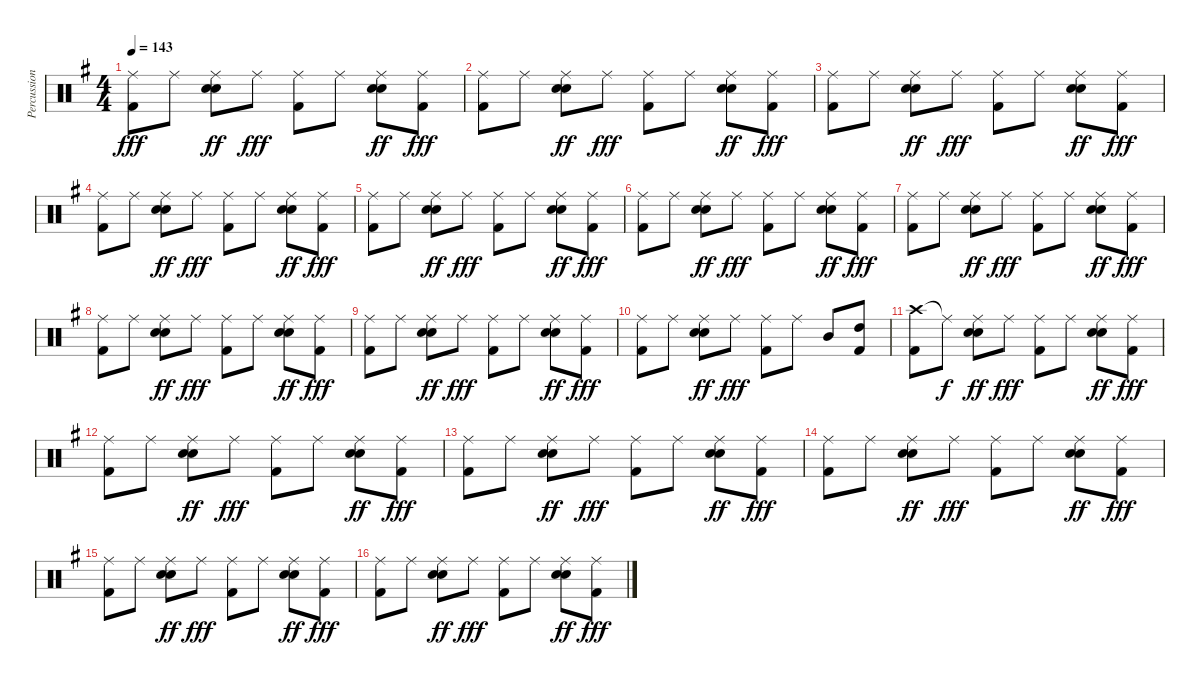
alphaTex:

\track ("Percussion" "Percussion") {instrument percussion}
\staff {score}
\articulation defaults
\ts (4 4)
\tempo 143
\clef neutral
\ks g
("Ride (middle)" "Kick (hit) 2").8{dy fff} "Ride (middle)".8 ("Ride (middle)" "Snare (hit) 2" "Electric Snare (hit)").8{dy ff} "Ride (middle)".8{dy fff} ("Ride (middle)" "Kick (hit) 2").8 "Ride (middle)".8 ("Ride (middle)" "Snare (hit) 2" "Electric Snare (hit)").8{dy ff} ("Ride (middle)" "Kick (hit) 2").8{dy fff} |
("Ride (middle)" "Kick (hit) 2").8 "Ride (middle)".8 ("Ride (middle)" "Snare (hit) 2" "Electric Snare (hit)").8{dy ff} "Ride (middle)".8{dy fff} ("Ride (middle)" "Kick (hit) 2").8 "Ride (middle)".8 ("Ride (middle)" "Snare (hit) 2" "Electric Snare (hit)").8{dy ff} ("Ride (middle)" "Kick (hit) 2").8{dy fff} |
("Ride (middle)" "Kick (hit) 2").8 "Ride (middle)".8 ("Ride (middle)" "Snare (hit) 2" "Electric Snare (hit)").8{dy ff} "Ride (middle)".8{dy fff} ("Ride (middle)" "Kick (hit) 2").8 "Ride (middle)".8 ("Ride (middle)" "Snare (hit) 2" "Electric Snare (hit)").8{dy ff} ("Ride (middle)" "Kick (hit) 2").8{dy fff} |
("Ride (middle)" "Kick (hit) 2").8 "Ride (middle)".8 ("Ride (middle)" "Snare (hit) 2" "Electric Snare (hit)").8{dy ff} "Ride (middle)".8{dy fff} ("Ride (middle)" "Kick (hit) 2").8 "Ride (middle)".8 ("Ride (middle)" "Snare (hit) 2" "Electric Snare (hit)").8{dy ff} ("Ride (middle)" "Kick (hit) 2").8{dy fff} |
("Ride (middle)" "Kick (hit) 2").8 "Ride (middle)".8 ("Ride (middle)" "Snare (hit) 2" "Electric Snare (hit)").8{dy ff} "Ride (middle)".8{dy fff} ("Ride (middle)" "Kick (hit) 2").8 "Ride (middle)".8 ("Ride (middle)" "Snare (hit) 2" "Electric Snare (hit)").8{dy ff} ("Ride (middle)" "Kick (hit) 2").8{dy fff} |
("Ride (middle)" "Kick (hit) 2").8 "Ride (middle)".8 ("Ride (middle)" "Snare (hit) 2" "Electric Snare (hit)").8{dy ff} "Ride (middle)".8{dy fff} ("Ride (middle)" "Kick (hit) 2").8 "Ride (middle)".8 ("Ride (middle)" "Snare (hit) 2" "Electric Snare (hit)").8{dy ff} ("Ride (middle)" "Kick (hit) 2").8{dy fff} |
("Ride (middle)" "Kick (hit) 2").8 "Ride (middle)".8 ("Ride (middle)" "Snare (hit) 2" "Electric Snare (hit)").8{dy ff} "Ride (middle)".8{dy fff} ("Ride (middle)" "Kick (hit) 2").8 "Ride (middle)".8 ("Ride (middle)" "Snare (hit) 2" "Electric Snare (hit)").8{dy ff} ("Ride (middle)" "Kick (hit) 2").8{dy fff} |
("Ride (middle)" "Kick (hit) 2").8 "Ride (middle)".8 ("Ride (middle)" "Snare (hit) 2" "Electric Snare (hit)").8{dy ff} "Ride (middle)".8{dy fff} ("Ride (middle)" "Kick (hit) 2").8 "Ride (middle)".8 ("Ride (middle)" "Snare (hit) 2" "Electric Snare (hit)").8{dy ff} ("Ride (middle)" "Kick (hit) 2").8{dy fff} |
("Ride (middle)" "Kick (hit) 2").8 "Ride (middle)".8 ("Ride (middle)" "Snare (hit) 2" "Electric Snare (hit)").8{dy ff} "Ride (middle)".8{dy fff} ("Ride (middle)" "Kick (hit) 2").8 "Ride (middle)".8 ("Ride (middle)" "Snare (hit) 2" "Electric Snare (hit)").8{dy ff} ("Ride (middle)" "Kick (hit) 2").8{dy fff} |
("Ride (middle)" "Kick (hit) 2").8 "Ride (middle)".8 ("Ride (middle)" "Snare (hit) 2" "Electric Snare (hit)").8{dy ff} "Ride (middle)".8{dy fff} ("Ride (middle)" "Kick (hit) 2").8 "Ride (middle)".8 "Mid Tom (hit)".8 ("High Tom (hit)" "Kick (hit) 2").8 |
("Crash high (hit)" "Kick (hit) 2").8 "Ride (middle)"{t}.8{dy f} ("Ride (middle)" "Snare (hit) 2" "Electric Snare (hit)").8{dy ff} "Ride (middle)".8{dy fff} ("Ride (middle)" "Kick (hit) 2").8 "Ride (middle)".8 ("Ride (middle)" "Snare (hit) 2" "Electric Snare (hit)").8{dy ff} ("Ride (middle)" "Kick (hit) 2").8{dy fff} |
("Ride (middle)" "Kick (hit) 2").8 "Ride (middle)".8 ("Ride (middle)" "Snare (hit) 2" "Electric Snare (hit)").8{dy ff} "Ride (middle)".8{dy fff} ("Ride (middle)" "Kick (hit) 2").8 "Ride (middle)".8 ("Ride (middle)" "Snare (hit) 2" "Electric Snare (hit)").8{dy ff} ("Ride (middle)" "Kick (hit) 2").8{dy fff} |
("Ride (middle)" "Kick (hit) 2").8 "Ride (middle)".8 ("Ride (middle)" "Snare (hit) 2" "Electric Snare (hit)").8{dy ff} "Ride (middle)".8{dy fff} ("Ride (middle)" "Kick (hit) 2").8 "Ride (middle)".8 ("Ride (middle)" "Snare (hit) 2" "Electric Snare (hit)").8{dy ff} ("Ride (middle)" "Kick (hit) 2").8{dy fff} |
("Ride (middle)" "Kick (hit) 2").8 "Ride (middle)".8 ("Ride (middle)" "Snare (hit) 2" "Electric Snare (hit)").8{dy ff} "Ride (middle)".8{dy fff} ("Ride (middle)" "Kick (hit) 2").8 "Ride (middle)".8 ("Ride (middle)" "Snare (hit) 2" "Electric Snare (hit)").8{dy ff} ("Ride (middle)" "Kick (hit) 2").8{dy fff} |
("Ride (middle)" "Kick (hit) 2").8 "Ride (middle)".8 ("Ride (middle)" "Snare (hit) 2" "Electric Snare (hit)").8{dy ff} "Ride (middle)".8{dy fff} ("Ride (middle)" "Kick (hit) 2").8 "Ride (middle)".8 ("Ride (middle)" "Snare (hit) 2" "Electric Snare (hit)").8{dy ff} ("Ride (middle)" "Kick (hit) 2").8{dy fff} |
("Ride (middle)" "Kick (hit) 2").8 "Ride (middle)".8 ("Ride (middle)" "Snare (hit) 2" "Electric Snare (hit)").8{dy ff} "Ride (middle)".8{dy fff} ("Ride (middle)" "Kick (hit) 2").8 "Ride (middle)".8 ("Ride (middle)" "Snare (hit) 2" "Electric Snare (hit)").8{dy ff} ("Ride (middle)" "Kick (hit) 2").8{dy fff}
